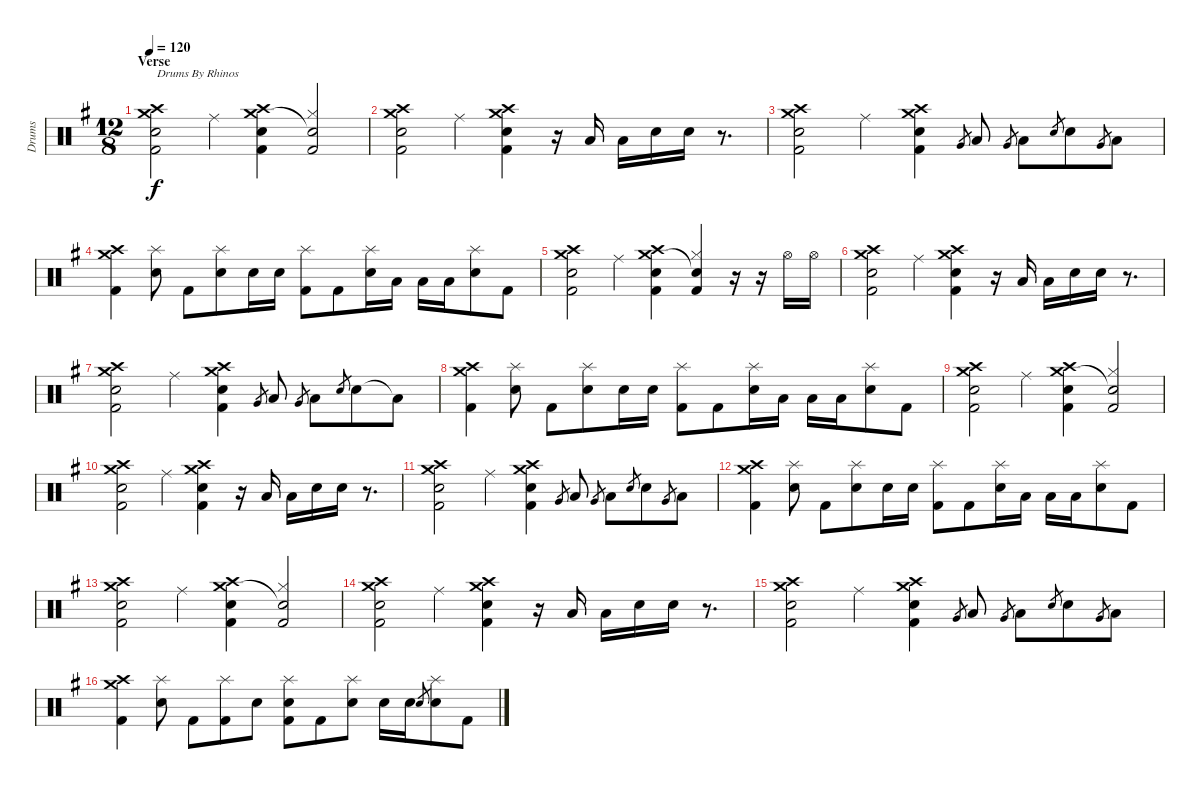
\track ("Drums" "Drums") {instrument percussion}
\staff {score}
\articulation defaults
\ts (12 8)
\section ("" "Verse")
\tempo 120
\clef neutral
\ks g
("Crash high (hit)" "Crash medium (hit)" "Snare (hit) 2" "Kick (hit) 2").2{txt "Drums By Rhinos" dy f} "Ride (middle)".4 ("Crash high (hit)" "Crash medium (hit)" "Snare (hit) 2" "Kick (hit) 2").4 ("Hi-Hat (closed)" "Electric Snare (hit)"{t} "Kick (hit) 2").2 |
("Crash high (hit)" "Crash medium (hit)" "Snare (hit) 2" "Kick (hit) 2").2 "Ride (middle)".4 ("Crash high (hit)" "Crash medium (hit)" "Snare (hit) 2" "Kick (hit) 2").4 r.16 "Low Tom (hit)".16 "Low Tom (hit)".16 "Snare (hit) 2".16 "Snare (hit) 2".16 r.8{d} |
("Crash high (hit)" "Crash medium (hit)" "Snare (hit) 2" "Kick (hit) 2").2 "Ride (middle)".4 ("Crash high (hit)" "Crash medium (hit)" "Snare (hit) 2" "Kick (hit) 2").4 "Very Low Tom (hit)".8{gr} "Low Tom (hit)".8 "Very Low Tom (hit)".8{gr} "Low Tom (hit)".8 "Snare (hit) 2".8{gr} "Snare (hit) 2".8 "Very Low Tom (hit)".8{gr} "Low Tom (hit)".8 |
("Crash medium (hit)" "Crash high (hit)" "Kick (hit) 2").4 ("Splash (hit)" "Snare (hit) 2").8 "Kick (hit) 2".8 ("Splash (hit)" "Snare (hit) 2").8 "Snare (hit) 2".16 "Snare (hit) 2".16 ("Splash (hit)" "Kick (hit) 2").8 "Kick (hit) 2".8 ("Splash (hit)" "Snare (hit) 2").16 "Low Tom (hit)".16 "Low Tom (hit)".16 "Low Tom (hit)".16 ("Splash (hit)" "Snare (hit) 2").8 "Kick (hit) 2".8 |
("Crash high (hit)" "Crash medium (hit)" "Electric Snare (hit)" "Kick (hit) 2").2 "Ride (middle)".4 ("Crash high (hit)" "Crash medium (hit)" "Electric Snare (hit)" "Kick (hit) 2").4 ("Hi-Hat (closed)" "Electric Snare (hit)"{t} "Kick (hit) 2").4 r.16 r.16 "Hi-Hat (open)".16 "Hi-Hat (open)".16 |
("Crash high (hit)" "Crash medium (hit)" "Electric Snare (hit)" "Kick (hit) 2").2 "Ride (middle)".4 ("Crash high (hit)" "Crash medium (hit)" "Electric Snare (hit)" "Kick (hit) 2").4 r.16 "Low Tom (hit)".16 "Low Tom (hit)".16 "Electric Snare (hit)".16 "Electric Snare (hit)".16 r.8{d} |
("Crash high (hit)" "Crash medium (hit)" "Electric Snare (hit)" "Kick (hit) 2").2 "Ride (middle)".4 ("Crash high (hit)" "Crash medium (hit)" "Electric Snare (hit)" "Kick (hit) 2").4 "Very Low Tom (hit)".8{gr} "Low Tom (hit)".8 "Very Low Tom (hit)".8{gr} "Low Tom (hit)".8 "Electric Snare (hit)".8{gr} "Electric Snare (hit)".8 "Low Tom (hit)"{t}.8 |
("Crash medium (hit)" "Crash high (hit)" "Kick (hit) 2").4 ("Splash (hit)" "Electric Snare (hit)").8 "Kick (hit) 2".8 ("Splash (hit)" "Electric Snare (hit)").8 "Electric Snare (hit)".16 "Electric Snare (hit)".16 ("Splash (hit)" "Kick (hit) 2").8 "Kick (hit) 2".8 ("Splash (hit)" "Electric Snare (hit)").16 "Low Tom (hit)".16 "Low Tom (hit)".16 "Low Tom (hit)".16 ("Splash (hit)" "Electric Snare (hit)").8 "Kick (hit) 2".8 |
("Crash high (hit)" "Crash medium (hit)" "Electric Snare (hit)" "Kick (hit) 2").2 "Ride (middle)".4 ("Crash high (hit)" "Crash medium (hit)" "Electric Snare (hit)" "Kick (hit) 2").4 ("Hi-Hat (closed)" "Electric Snare (hit)"{t} "Kick (hit) 2").2 |
("Crash high (hit)" "Crash medium (hit)" "Electric Snare (hit)" "Kick (hit) 2").2 "Ride (middle)".4 ("Crash high (hit)" "Crash medium (hit)" "Electric Snare (hit)" "Kick (hit) 2").4 r.16 "Low Tom (hit)".16 "Low Tom (hit)".16 "Electric Snare (hit)".16 "Electric Snare (hit)".16 r.8{d} |
("Crash high (hit)" "Crash medium (hit)" "Electric Snare (hit)" "Kick (hit) 2").2 "Ride (middle)".4 ("Crash high (hit)" "Crash medium (hit)" "Electric Snare (hit)" "Kick (hit) 2").4 "Very Low Tom (hit)".8{gr} "Low Tom (hit)".8 "Very Low Tom (hit)".8{gr} "Low Tom (hit)".8 "Electric Snare (hit)".8{gr} "Electric Snare (hit)".8 "Very Low Tom (hit)".8{gr} "Low Tom (hit)".8 |
("Crash medium (hit)" "Crash high (hit)" "Kick (hit) 2").4 ("Splash (hit)" "Electric Snare (hit)").8 "Kick (hit) 2".8 ("Splash (hit)" "Electric Snare (hit)").8 "Electric Snare (hit)".16 "Electric Snare (hit)".16 ("Splash (hit)" "Kick (hit) 2").8 "Kick (hit) 2".8 ("Splash (hit)" "Electric Snare (hit)").16 "Low Tom (hit)".16 "Low Tom (hit)".16 "Low Tom (hit)".16 ("Splash (hit)" "Electric Snare (hit)").8 "Kick (hit) 2".8 |
("Crash high (hit)" "Crash medium (hit)" "Electric Snare (hit)" "Kick (hit) 2").2 "Ride (middle)".4 ("Crash high (hit)" "Crash medium (hit)" "Electric Snare (hit)" "Kick (hit) 2").4 ("Hi-Hat (closed)" "Electric Snare (hit)"{t} "Kick (hit) 2").2 |
("Crash high (hit)" "Crash medium (hit)" "Snare (hit) 2" "Kick (hit) 2").2 "Ride (middle)".4 ("Crash high (hit)" "Crash medium (hit)" "Snare (hit) 2" "Kick (hit) 2").4 r.16 "Low Tom (hit)".16 "Low Tom (hit)".16 "Electric Snare (hit)".16 "Electric Snare (hit)".16 r.8{d} |
("Crash high (hit)" "Crash medium (hit)" "Electric Snare (hit)" "Kick (hit) 2").2 "Ride (middle)".4 ("Crash high (hit)" "Crash medium (hit)" "Electric Snare (hit)" "Kick (hit) 2").4 "Very Low Tom (hit)".8{gr} "Low Tom (hit)".8 "Very Low Tom (hit)".8{gr} "Low Tom (hit)".8 "Electric Snare (hit)".8{gr} "Electric Snare (hit)".8 "Very Low Tom (hit)".8{gr} "Low Tom (hit)".8 |
("Crash medium (hit)" "Crash high (hit)" "Kick (hit) 2").4 ("Splash (hit)" "Electric Snare (hit)").8 "Kick (hit) 2".8 ("Splash (hit)" "Kick (hit) 2").8 "Electric Snare (hit)".8 ("Splash (hit)" "Electric Snare (hit)" "Kick (hit) 2").8 "Kick (hit) 2".8 ("Splash (hit)" "Electric Snare (hit)").8 "Electric Snare (hit)".16 "Electric Snare (hit)".16 "Electric Snare (hit)".8{gr} ("Splash (hit)" "Electric Snare (hit)").8 "Kick (hit) 2".8
